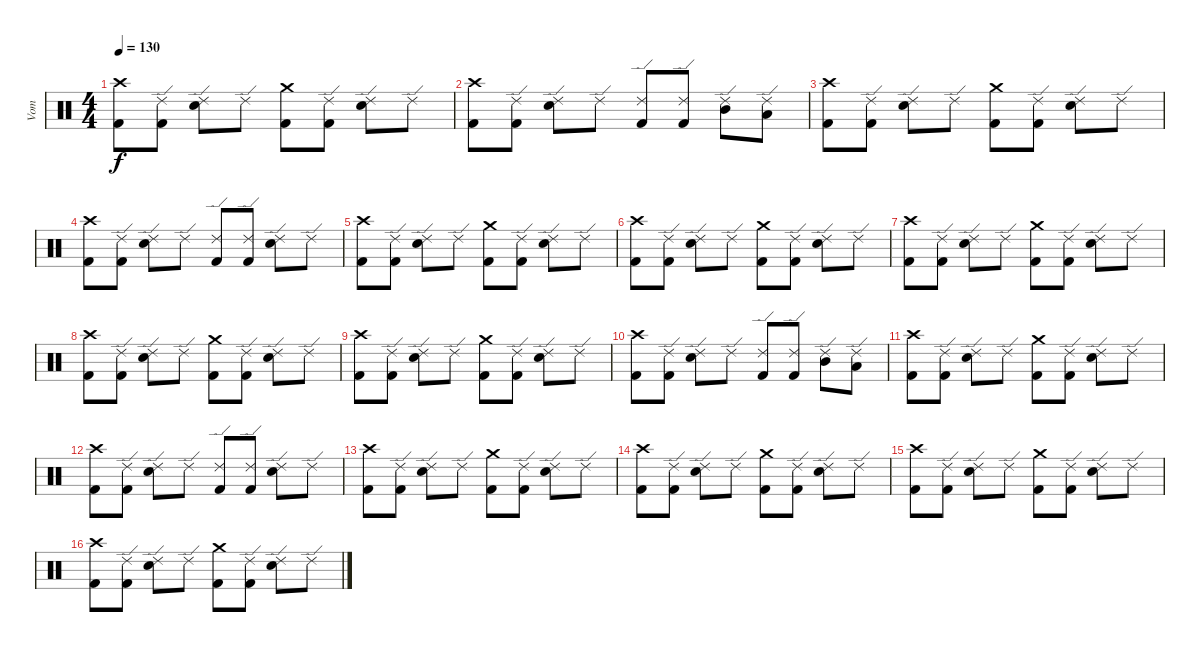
\track ("Vom" "Vom") {instrument percussion}
\staff {score}
\articulation defaults
\ts (4 4)
\tempo 130
\clef neutral
\ks c
("Crash high (hit)" "Kick (hit) 2").8{dy f} ("Ride (edge) 2" "Kick (hit) 2").8 ("Ride (edge) 2" "Snare (hit) 2").8 "Ride (edge) 2".8 ("Crash medium (hit)" "Kick (hit) 2").8 ("Ride (edge) 2" "Kick (hit) 2").8 ("Ride (edge) 2" "Snare (hit) 2").8 "Ride (edge) 2".8 |
("Crash high (hit)" "Kick (hit) 2").8 ("Ride (edge) 2" "Kick (hit) 2").8 ("Ride (edge) 2" "Snare (hit) 2").8 "Ride (edge) 2".8 ("Ride (edge) 2" "Kick (hit) 2").8 ("Ride (edge) 2" "Kick (hit) 2").8 ("Ride (edge) 2" "Mid Tom (hit)").8 ("Ride (edge) 2" "Low Tom (hit)").8 |
("Crash high (hit)" "Kick (hit) 2").8 ("Ride (edge) 2" "Kick (hit) 2").8 ("Ride (edge) 2" "Snare (hit) 2").8 "Ride (edge) 2".8 ("Crash medium (hit)" "Kick (hit) 2").8 ("Ride (edge) 2" "Kick (hit) 2").8 ("Ride (edge) 2" "Snare (hit) 2").8 "Ride (edge) 2".8 |
("Crash high (hit)" "Kick (hit) 2").8 ("Ride (edge) 2" "Kick (hit) 2").8 ("Ride (edge) 2" "Snare (hit) 2").8 "Ride (edge) 2".8 ("Ride (edge) 2" "Kick (hit) 2").8 ("Ride (edge) 2" "Kick (hit) 2").8 ("Ride (edge) 2" "Snare (hit) 2").8 "Ride (edge) 2".8 |
("Crash high (hit)" "Kick (hit) 2").8 ("Ride (edge) 2" "Kick (hit) 2").8 ("Ride (edge) 2" "Snare (hit) 2").8 "Ride (edge) 2".8 ("Crash medium (hit)" "Kick (hit) 2").8 ("Ride (edge) 2" "Kick (hit) 2").8 ("Ride (edge) 2" "Snare (hit) 2").8 "Ride (edge) 2".8 |
("Crash high (hit)" "Kick (hit) 2").8 ("Ride (edge) 2" "Kick (hit) 2").8 ("Ride (edge) 2" "Snare (hit) 2").8 "Ride (edge) 2".8 ("Crash medium (hit)" "Kick (hit) 2").8 ("Ride (edge) 2" "Kick (hit) 2").8 ("Ride (edge) 2" "Snare (hit) 2").8 "Ride (edge) 2".8 |
("Crash high (hit)" "Kick (hit) 2").8 ("Ride (edge) 2" "Kick (hit) 2").8 ("Ride (edge) 2" "Snare (hit) 2").8 "Ride (edge) 2".8 ("Crash medium (hit)" "Kick (hit) 2").8 ("Ride (edge) 2" "Kick (hit) 2").8 ("Ride (edge) 2" "Snare (hit) 2").8 "Ride (edge) 2".8 |
("Crash high (hit)" "Kick (hit) 2").8 ("Ride (edge) 2" "Kick (hit) 2").8 ("Ride (edge) 2" "Snare (hit) 2").8 "Ride (edge) 2".8 ("Crash medium (hit)" "Kick (hit) 2").8 ("Ride (edge) 2" "Kick (hit) 2").8 ("Ride (edge) 2" "Snare (hit) 2").8 "Ride (edge) 2".8 |
("Crash high (hit)" "Kick (hit) 2").8 ("Ride (edge) 2" "Kick (hit) 2").8 ("Ride (edge) 2" "Snare (hit) 2").8 "Ride (edge) 2".8 ("Crash medium (hit)" "Kick (hit) 2").8 ("Ride (edge) 2" "Kick (hit) 2").8 ("Ride (edge) 2" "Snare (hit) 2").8 "Ride (edge) 2".8 |
("Crash high (hit)" "Kick (hit) 2").8 ("Ride (edge) 2" "Kick (hit) 2").8 ("Ride (edge) 2" "Snare (hit) 2").8 "Ride (edge) 2".8 ("Ride (edge) 2" "Kick (hit) 2").8 ("Ride (edge) 2" "Kick (hit) 2").8 ("Ride (edge) 2" "Mid Tom (hit)").8 ("Ride (edge) 2" "Low Tom (hit)").8 |
("Crash high (hit)" "Kick (hit) 2").8 ("Ride (edge) 2" "Kick (hit) 2").8 ("Ride (edge) 2" "Snare (hit) 2").8 "Ride (edge) 2".8 ("Crash medium (hit)" "Kick (hit) 2").8 ("Ride (edge) 2" "Kick (hit) 2").8 ("Ride (edge) 2" "Snare (hit) 2").8 "Ride (edge) 2".8 |
("Crash high (hit)" "Kick (hit) 2").8 ("Ride (edge) 2" "Kick (hit) 2").8 ("Ride (edge) 2" "Snare (hit) 2").8 "Ride (edge) 2".8 ("Ride (edge) 2" "Kick (hit) 2").8 ("Ride (edge) 2" "Kick (hit) 2").8 ("Ride (edge) 2" "Snare (hit) 2").8 "Ride (edge) 2".8 |
("Crash high (hit)" "Kick (hit) 2").8 ("Ride (edge) 2" "Kick (hit) 2").8 ("Ride (edge) 2" "Snare (hit) 2").8 "Ride (edge) 2".8 ("Crash medium (hit)" "Kick (hit) 2").8 ("Ride (edge) 2" "Kick (hit) 2").8 ("Ride (edge) 2" "Snare (hit) 2").8 "Ride (edge) 2".8 |
("Crash high (hit)" "Kick (hit) 2").8 ("Ride (edge) 2" "Kick (hit) 2").8 ("Ride (edge) 2" "Snare (hit) 2").8 "Ride (edge) 2".8 ("Crash medium (hit)" "Kick (hit) 2").8 ("Ride (edge) 2" "Kick (hit) 2").8 ("Ride (edge) 2" "Snare (hit) 2").8 "Ride (edge) 2".8 |
("Crash high (hit)" "Kick (hit) 2").8 ("Ride (edge) 2" "Kick (hit) 2").8 ("Ride (edge) 2" "Snare (hit) 2").8 "Ride (edge) 2".8 ("Crash medium (hit)" "Kick (hit) 2").8 ("Ride (edge) 2" "Kick (hit) 2").8 ("Ride (edge) 2" "Snare (hit) 2").8 "Ride (edge) 2".8 |
("Crash high (hit)" "Kick (hit) 2").8 ("Ride (edge) 2" "Kick (hit) 2").8 ("Ride (edge) 2" "Snare (hit) 2").8 "Ride (edge) 2".8 ("Crash medium (hit)" "Kick (hit) 2").8 ("Ride (edge) 2" "Kick (hit) 2").8 ("Ride (edge) 2" "Snare (hit) 2").8 "Ride (edge) 2".8
